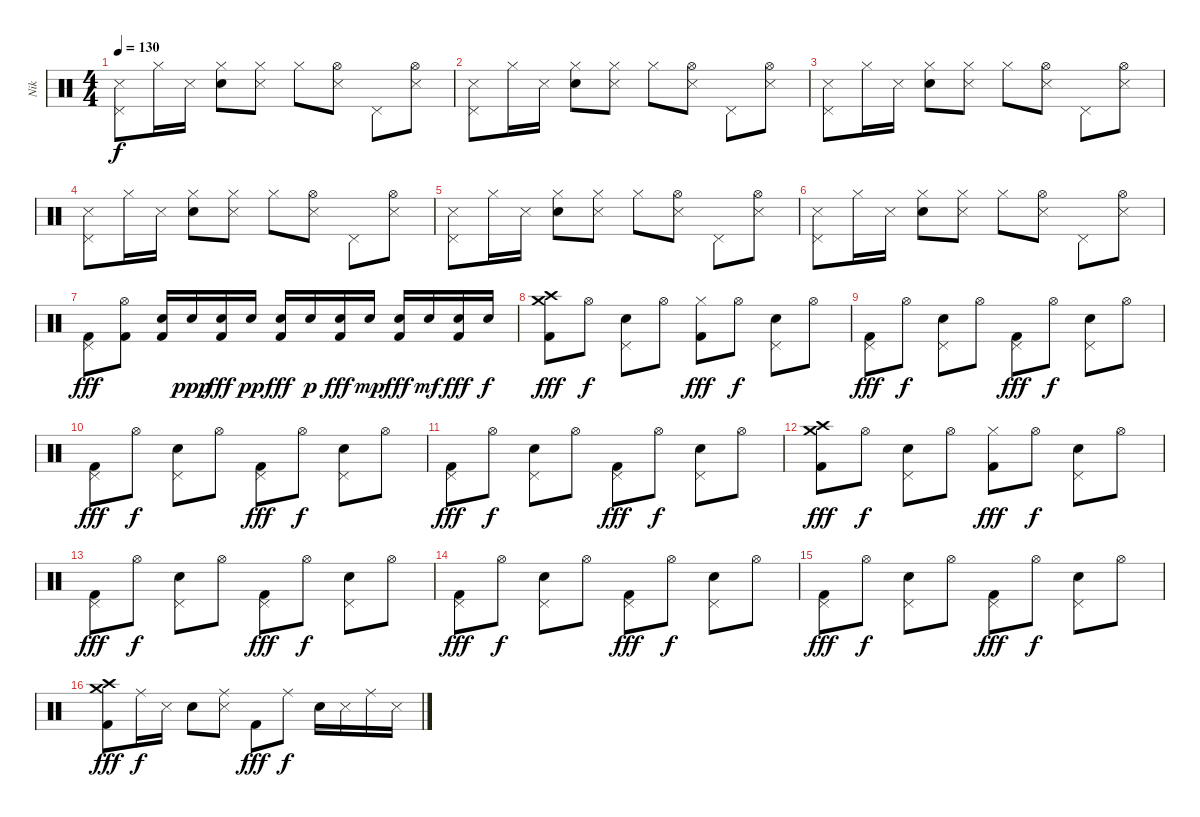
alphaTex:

\track ("Nik" "Nik") {instrument percussion}
\staff {score}
\articulation defaults
\ts (4 4)
\tempo 130
\clef neutral
\ks c
("Pedal Hi-Hat (hit)" "Snare (side stick) 3").8{dy f} "Hi-Hat (closed)".16 "Snare (side stick) 3".16 ("Hi-Hat (closed)" "Electric Snare (hit)").8 ("Hi-Hat (closed)" "Snare (side stick) 3").8 "Hi-Hat (closed)".8 ("Hi-Hat (open)" "Snare (side stick) 3").8 "Pedal Hi-Hat (hit)".8 ("Hi-Hat (open)" "Snare (side stick) 3").8 |
("Pedal Hi-Hat (hit)" "Snare (side stick) 3").8 "Hi-Hat (closed)".16 "Snare (side stick) 3".16 ("Hi-Hat (closed)" "Electric Snare (hit)").8 ("Hi-Hat (closed)" "Snare (side stick) 3").8 "Hi-Hat (closed)".8 ("Hi-Hat (open)" "Snare (side stick) 3").8 "Pedal Hi-Hat (hit)".8 ("Hi-Hat (open)" "Snare (side stick) 3").8 |
("Pedal Hi-Hat (hit)" "Snare (side stick) 3").8 "Hi-Hat (closed)".16 "Snare (side stick) 3".16 ("Hi-Hat (closed)" "Electric Snare (hit)").8 ("Hi-Hat (closed)" "Snare (side stick) 3").8 "Hi-Hat (closed)".8 ("Hi-Hat (open)" "Snare (side stick) 3").8 "Pedal Hi-Hat (hit)".8 ("Hi-Hat (open)" "Snare (side stick) 3").8 |
("Pedal Hi-Hat (hit)" "Snare (side stick) 3").8 "Hi-Hat (closed)".16 "Snare (side stick) 3".16 ("Hi-Hat (closed)" "Electric Snare (hit)").8 ("Hi-Hat (closed)" "Snare (side stick) 3").8 "Hi-Hat (closed)".8 ("Hi-Hat (open)" "Snare (side stick) 3").8 "Pedal Hi-Hat (hit)".8 ("Hi-Hat (open)" "Snare (side stick) 3").8 |
("Pedal Hi-Hat (hit)" "Snare (side stick) 3").8 "Hi-Hat (closed)".16 "Snare (side stick) 3".16 ("Hi-Hat (closed)" "Electric Snare (hit)").8 ("Hi-Hat (closed)" "Snare (side stick) 3").8 "Hi-Hat (closed)".8 ("Hi-Hat (open)" "Snare (side stick) 3").8 "Pedal Hi-Hat (hit)".8 ("Hi-Hat (open)" "Snare (side stick) 3").8 |
("Pedal Hi-Hat (hit)" "Snare (side stick) 3").8 "Hi-Hat (closed)".16 "Snare (side stick) 3".16 ("Hi-Hat (closed)" "Electric Snare (hit)").8 ("Hi-Hat (closed)" "Snare (side stick) 3").8 "Hi-Hat (closed)".8 ("Hi-Hat (open)" "Snare (side stick) 3").8 "Pedal Hi-Hat (hit)".8 ("Hi-Hat (open)" "Snare (side stick) 3").8 |
("Pedal Hi-Hat (hit)" "Kick (hit) 2").8{dy fff} ("Hi-Hat (open)" "Kick (hit) 2").8 ("Electric Snare (hit)" "Kick (hit) 2").16 "Electric Snare (hit)".16{dy ppp} ("Electric Snare (hit)" "Kick (hit) 2").16{dy fff} "Electric Snare (hit)".16{dy pp} ("Electric Snare (hit)" "Kick (hit) 2").16{dy fff} "Electric Snare (hit)".16{dy p} ("Electric Snare (hit)" "Kick (hit) 2").16{dy fff} "Electric Snare (hit)".16{dy mp} ("Electric Snare (hit)" "Kick (hit) 2").16{dy fff} "Electric Snare (hit)".16{dy mf} ("Electric Snare (hit)" "Kick (hit) 2").16{dy fff} "Electric Snare (hit)".16{dy f} |
("Crash high (hit)" "Crash medium (hit)" "Kick (hit) 2").8{dy fff} "Hi-Hat (open)".8{dy f} ("Pedal Hi-Hat (hit)" "Electric Snare (hit)").8 "Hi-Hat (open)".8 ("Hi-Hat (closed)" "Kick (hit) 2").8{dy fff} "Hi-Hat (open)".8{dy f} ("Pedal Hi-Hat (hit)" "Electric Snare (hit)").8 "Hi-Hat (open)".8 |
("Pedal Hi-Hat (hit)" "Kick (hit) 2").8{dy fff} "Hi-Hat (open)".8{dy f} ("Pedal Hi-Hat (hit)" "Electric Snare (hit)").8 "Hi-Hat (open)".8 ("Pedal Hi-Hat (hit)" "Kick (hit) 2").8{dy fff} "Hi-Hat (open)".8{dy f} ("Pedal Hi-Hat (hit)" "Electric Snare (hit)").8 "Hi-Hat (open)".8 |
("Pedal Hi-Hat (hit)" "Kick (hit) 2").8{dy fff} "Hi-Hat (open)".8{dy f} ("Pedal Hi-Hat (hit)" "Electric Snare (hit)").8 "Hi-Hat (open)".8 ("Pedal Hi-Hat (hit)" "Kick (hit) 2").8{dy fff} "Hi-Hat (open)".8{dy f} ("Pedal Hi-Hat (hit)" "Electric Snare (hit)").8 "Hi-Hat (open)".8 |
("Pedal Hi-Hat (hit)" "Kick (hit) 2").8{dy fff} "Hi-Hat (open)".8{dy f} ("Pedal Hi-Hat (hit)" "Electric Snare (hit)").8 "Hi-Hat (open)".8 ("Pedal Hi-Hat (hit)" "Kick (hit) 2").8{dy fff} "Hi-Hat (open)".8{dy f} ("Pedal Hi-Hat (hit)" "Electric Snare (hit)").8 "Hi-Hat (open)".8 |
("Crash high (hit)" "Crash medium (hit)" "Kick (hit) 2").8{dy fff} "Hi-Hat (open)".8{dy f} ("Pedal Hi-Hat (hit)" "Electric Snare (hit)").8 "Hi-Hat (open)".8 ("Hi-Hat (closed)" "Kick (hit) 2").8{dy fff} "Hi-Hat (open)".8{dy f} ("Pedal Hi-Hat (hit)" "Electric Snare (hit)").8 "Hi-Hat (open)".8 |
("Pedal Hi-Hat (hit)" "Kick (hit) 2").8{dy fff} "Hi-Hat (open)".8{dy f} ("Pedal Hi-Hat (hit)" "Electric Snare (hit)").8 "Hi-Hat (open)".8 ("Pedal Hi-Hat (hit)" "Kick (hit) 2").8{dy fff} "Hi-Hat (open)".8{dy f} ("Pedal Hi-Hat (hit)" "Electric Snare (hit)").8 "Hi-Hat (open)".8 |
("Pedal Hi-Hat (hit)" "Kick (hit) 2").8{dy fff} "Hi-Hat (open)".8{dy f} ("Pedal Hi-Hat (hit)" "Electric Snare (hit)").8 "Hi-Hat (open)".8 ("Pedal Hi-Hat (hit)" "Kick (hit) 2").8{dy fff} "Hi-Hat (open)".8{dy f} ("Pedal Hi-Hat (hit)" "Electric Snare (hit)").8 "Hi-Hat (open)".8 |
("Pedal Hi-Hat (hit)" "Kick (hit) 2").8{dy fff} "Hi-Hat (open)".8{dy f} ("Pedal Hi-Hat (hit)" "Electric Snare (hit)").8 "Hi-Hat (open)".8 ("Pedal Hi-Hat (hit)" "Kick (hit) 2").8{dy fff} "Hi-Hat (open)".8{dy f} ("Pedal Hi-Hat (hit)" "Electric Snare (hit)").8 "Hi-Hat (open)".8 |
("Crash high (hit)" "Crash medium (hit)" "Kick (hit) 2").8{dy fff} "Ride (middle)".16{dy f} "Snare (side stick) 3".16 "Electric Snare (hit)".8 ("Ride (middle)" "Snare (side stick) 3").8 "Kick (hit) 2".8{dy fff} "Ride (middle)".8{dy f} "Electric Snare (hit)".16 "Snare (side stick) 3".16 "Ride (middle)".16 "Snare (side stick) 3".16
